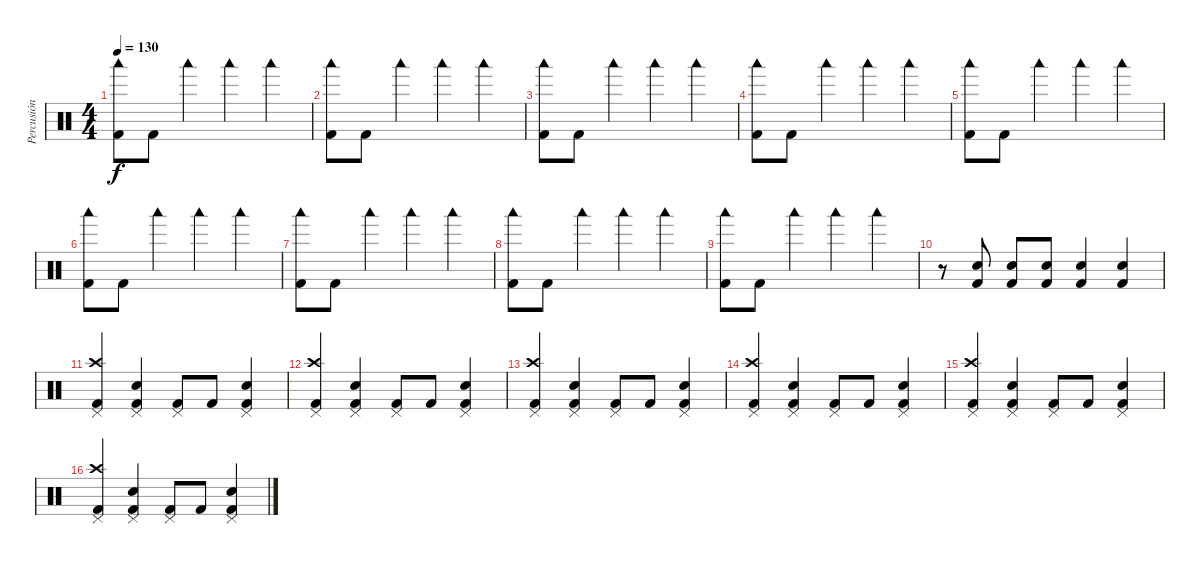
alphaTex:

\track ("Percusión" "Percusión") {instrument percussion}
\staff {score}
\articulation defaults
\ts (4 4)
\tempo 130
\clef neutral
\ks c
("Woodblock low (hit)" "Kick (hit) 2").8{dy f} "Kick (hit) 2".8 "Woodblock low (hit)".4 "Woodblock low (hit)".4 "Woodblock low (hit)".4 |
("Woodblock low (hit)" "Kick (hit) 2").8 "Kick (hit) 2".8 "Woodblock low (hit)".4 "Woodblock low (hit)".4 "Woodblock low (hit)".4 |
("Woodblock low (hit)" "Kick (hit) 2").8 "Kick (hit) 2".8 "Woodblock low (hit)".4 "Woodblock low (hit)".4 "Woodblock low (hit)".4 |
("Woodblock low (hit)" "Kick (hit) 2").8 "Kick (hit) 2".8 "Woodblock low (hit)".4 "Woodblock low (hit)".4 "Woodblock low (hit)".4 |
("Woodblock low (hit)" "Kick (hit) 2").8 "Kick (hit) 2".8 "Woodblock low (hit)".4 "Woodblock low (hit)".4 "Woodblock low (hit)".4 |
("Woodblock low (hit)" "Kick (hit) 2").8 "Kick (hit) 2".8 "Woodblock low (hit)".4 "Woodblock low (hit)".4 "Woodblock low (hit)".4 |
("Woodblock low (hit)" "Kick (hit) 2").8 "Kick (hit) 2".8 "Woodblock low (hit)".4 "Woodblock low (hit)".4 "Woodblock low (hit)".4 |
("Woodblock low (hit)" "Kick (hit) 2").8 "Kick (hit) 2".8 "Woodblock low (hit)".4 "Woodblock low (hit)".4 "Woodblock low (hit)".4 |
("Woodblock low (hit)" "Kick (hit) 2").8 "Kick (hit) 2".8 "Woodblock low (hit)".4 "Woodblock low (hit)".4 "Woodblock low (hit)".4 |
r.8 ("Kick (hit) 2" "Electric Snare (hit)").8 ("Kick (hit) 2" "Electric Snare (hit)").8 ("Kick (hit) 2" "Electric Snare (hit)").8 ("Kick (hit) 2" "Electric Snare (hit)").4 ("Electric Snare (hit)" "Kick (hit) 2").4 |
("Crash high (hit)" "Pedal Hi-Hat (hit)" "Kick (hit) 2").4 ("Pedal Hi-Hat (hit)" "Electric Snare (hit)" "Kick (hit) 2").4 ("Pedal Hi-Hat (hit)" "Kick (hit) 2").8 "Kick (hit) 2".8 ("Pedal Hi-Hat (hit)" "Kick (hit) 2" "Electric Snare (hit)").4 |
("Crash high (hit)" "Pedal Hi-Hat (hit)" "Kick (hit) 2").4 ("Pedal Hi-Hat (hit)" "Electric Snare (hit)" "Kick (hit) 2").4 ("Pedal Hi-Hat (hit)" "Kick (hit) 2").8 "Kick (hit) 2".8 ("Pedal Hi-Hat (hit)" "Kick (hit) 2" "Electric Snare (hit)").4 |
("Crash high (hit)" "Pedal Hi-Hat (hit)" "Kick (hit) 2").4 ("Pedal Hi-Hat (hit)" "Electric Snare (hit)" "Kick (hit) 2").4 ("Pedal Hi-Hat (hit)" "Kick (hit) 2").8 "Kick (hit) 2".8 ("Pedal Hi-Hat (hit)" "Kick (hit) 2" "Electric Snare (hit)").4 |
("Crash high (hit)" "Pedal Hi-Hat (hit)" "Kick (hit) 2").4 ("Pedal Hi-Hat (hit)" "Electric Snare (hit)" "Kick (hit) 2").4 ("Pedal Hi-Hat (hit)" "Kick (hit) 2").8 "Kick (hit) 2".8 ("Pedal Hi-Hat (hit)" "Kick (hit) 2" "Electric Snare (hit)").4 |
("Crash high (hit)" "Pedal Hi-Hat (hit)" "Kick (hit) 2").4 ("Pedal Hi-Hat (hit)" "Electric Snare (hit)" "Kick (hit) 2").4 ("Pedal Hi-Hat (hit)" "Kick (hit) 2").8 "Kick (hit) 2".8 ("Pedal Hi-Hat (hit)" "Kick (hit) 2" "Electric Snare (hit)").4 |
("Crash high (hit)" "Pedal Hi-Hat (hit)" "Kick (hit) 2").4 ("Pedal Hi-Hat (hit)" "Electric Snare (hit)" "Kick (hit) 2").4 ("Pedal Hi-Hat (hit)" "Kick (hit) 2").8 "Kick (hit) 2".8 ("Pedal Hi-Hat (hit)" "Kick (hit) 2" "Electric Snare (hit)").4
